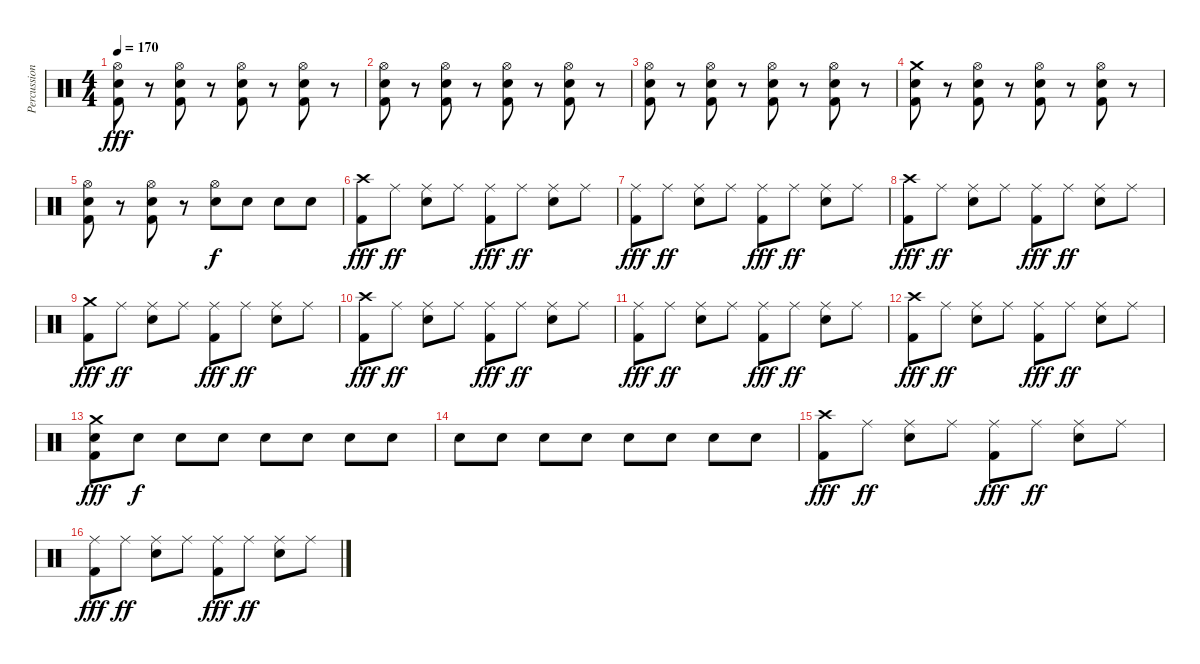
\track ("Percussion" "Percussion") {instrument percussion}
\staff {score}
\articulation defaults
\ts (4 4)
\tempo 170
\clef neutral
\ks c
("Hi-Hat (open)" "Electric Snare (hit)" "Kick (hit) 2").8{dy fff} r.8 ("Hi-Hat (open)" "Electric Snare (hit)" "Kick (hit) 2").8 r.8 ("Hi-Hat (open)" "Electric Snare (hit)" "Kick (hit) 2").8 r.8 ("Hi-Hat (open)" "Electric Snare (hit)" "Kick (hit) 2").8 r.8 |
("Hi-Hat (open)" "Electric Snare (hit)" "Kick (hit) 2").8 r.8 ("Hi-Hat (open)" "Electric Snare (hit)" "Kick (hit) 2").8 r.8 ("Hi-Hat (open)" "Electric Snare (hit)" "Kick (hit) 2").8 r.8 ("Hi-Hat (open)" "Electric Snare (hit)" "Kick (hit) 2").8 r.8 |
("Hi-Hat (open)" "Electric Snare (hit)" "Kick (hit) 2").8 r.8 ("Hi-Hat (open)" "Electric Snare (hit)" "Kick (hit) 2").8 r.8 ("Hi-Hat (open)" "Electric Snare (hit)" "Kick (hit) 2").8 r.8 ("Hi-Hat (open)" "Electric Snare (hit)" "Kick (hit) 2").8 r.8 |
("Crash medium (hit)" "Electric Snare (hit)" "Kick (hit) 2").8 r.8 ("Hi-Hat (open)" "Electric Snare (hit)" "Kick (hit) 2").8 r.8 ("Hi-Hat (open)" "Electric Snare (hit)" "Kick (hit) 2").8 r.8 ("Hi-Hat (open)" "Electric Snare (hit)" "Kick (hit) 2").8 r.8 |
("Hi-Hat (open)" "Electric Snare (hit)" "Kick (hit) 2").8 r.8 ("Hi-Hat (open)" "Electric Snare (hit)" "Kick (hit) 2").8 r.8 ("Hi-Hat (open)" "Electric Snare (hit)").8{dy f} "Electric Snare (hit)".8 "Electric Snare (hit)".8 "Electric Snare (hit)".8 |
("Crash high (hit)" "Kick (hit) 2").8{dy fff} "Ride (middle)".8{dy ff} ("Ride (middle)" "Electric Snare (hit)").8 "Ride (middle)".8 ("Ride (middle)" "Kick (hit) 2").8{dy fff} "Ride (middle)".8{dy ff} ("Ride (middle)" "Electric Snare (hit)").8 "Ride (middle)".8 |
("Ride (middle)" "Kick (hit) 2").8{dy fff} "Ride (middle)".8{dy ff} ("Ride (middle)" "Electric Snare (hit)").8 "Ride (middle)".8 ("Ride (middle)" "Kick (hit) 2").8{dy fff} "Ride (middle)".8{dy ff} ("Ride (middle)" "Electric Snare (hit)").8 "Ride (middle)".8 |
("Crash high (hit)" "Kick (hit) 2").8{dy fff} "Ride (middle)".8{dy ff} ("Ride (middle)" "Electric Snare (hit)").8 "Ride (middle)".8 ("Ride (middle)" "Kick (hit) 2").8{dy fff} "Ride (middle)".8{dy ff} ("Ride (middle)" "Electric Snare (hit)").8 "Ride (middle)".8 |
("Crash medium (hit)" "Kick (hit) 2").8{dy fff} "Ride (middle)".8{dy ff} ("Ride (middle)" "Electric Snare (hit)").8 "Ride (middle)".8 ("Ride (middle)" "Kick (hit) 2").8{dy fff} "Ride (middle)".8{dy ff} ("Ride (middle)" "Electric Snare (hit)").8 "Ride (middle)".8 |
("Crash high (hit)" "Kick (hit) 2").8{dy fff} "Ride (middle)".8{dy ff} ("Ride (middle)" "Electric Snare (hit)").8 "Ride (middle)".8 ("Ride (middle)" "Kick (hit) 2").8{dy fff} "Ride (middle)".8{dy ff} ("Ride (middle)" "Electric Snare (hit)").8 "Ride (middle)".8 |
("Ride (middle)" "Kick (hit) 2").8{dy fff} "Ride (middle)".8{dy ff} ("Ride (middle)" "Electric Snare (hit)").8 "Ride (middle)".8 ("Ride (middle)" "Kick (hit) 2").8{dy fff} "Ride (middle)".8{dy ff} ("Ride (middle)" "Electric Snare (hit)").8 "Ride (middle)".8 |
("Crash high (hit)" "Kick (hit) 2").8{dy fff} "Ride (middle)".8{dy ff} ("Ride (middle)" "Electric Snare (hit)").8 "Ride (middle)".8 ("Ride (middle)" "Kick (hit) 2").8{dy fff} "Ride (middle)".8{dy ff} ("Ride (middle)" "Electric Snare (hit)").8 "Ride (middle)".8 |
("Crash medium (hit)" "Electric Snare (hit)" "Kick (hit) 2").8{dy fff} "Electric Snare (hit)".8{dy f} "Electric Snare (hit)".8 "Electric Snare (hit)".8 "Electric Snare (hit)".8 "Electric Snare (hit)".8 "Electric Snare (hit)".8 "Electric Snare (hit)".8 |
"Electric Snare (hit)".8 "Electric Snare (hit)".8 "Electric Snare (hit)".8 "Electric Snare (hit)".8 "Electric Snare (hit)".8 "Electric Snare (hit)".8 "Electric Snare (hit)".8 "Electric Snare (hit)".8 |
("Crash high (hit)" "Kick (hit) 2").8{dy fff} "Ride (middle)".8{dy ff} ("Ride (middle)" "Electric Snare (hit)").8 "Ride (middle)".8 ("Ride (middle)" "Kick (hit) 2").8{dy fff} "Ride (middle)".8{dy ff} ("Ride (middle)" "Electric Snare (hit)").8 "Ride (middle)".8 |
("Ride (middle)" "Kick (hit) 2").8{dy fff} "Ride (middle)".8{dy ff} ("Ride (middle)" "Electric Snare (hit)").8 "Ride (middle)".8 ("Ride (middle)" "Kick (hit) 2").8{dy fff} "Ride (middle)".8{dy ff} ("Ride (middle)" "Electric Snare (hit)").8 "Ride (middle)".8
